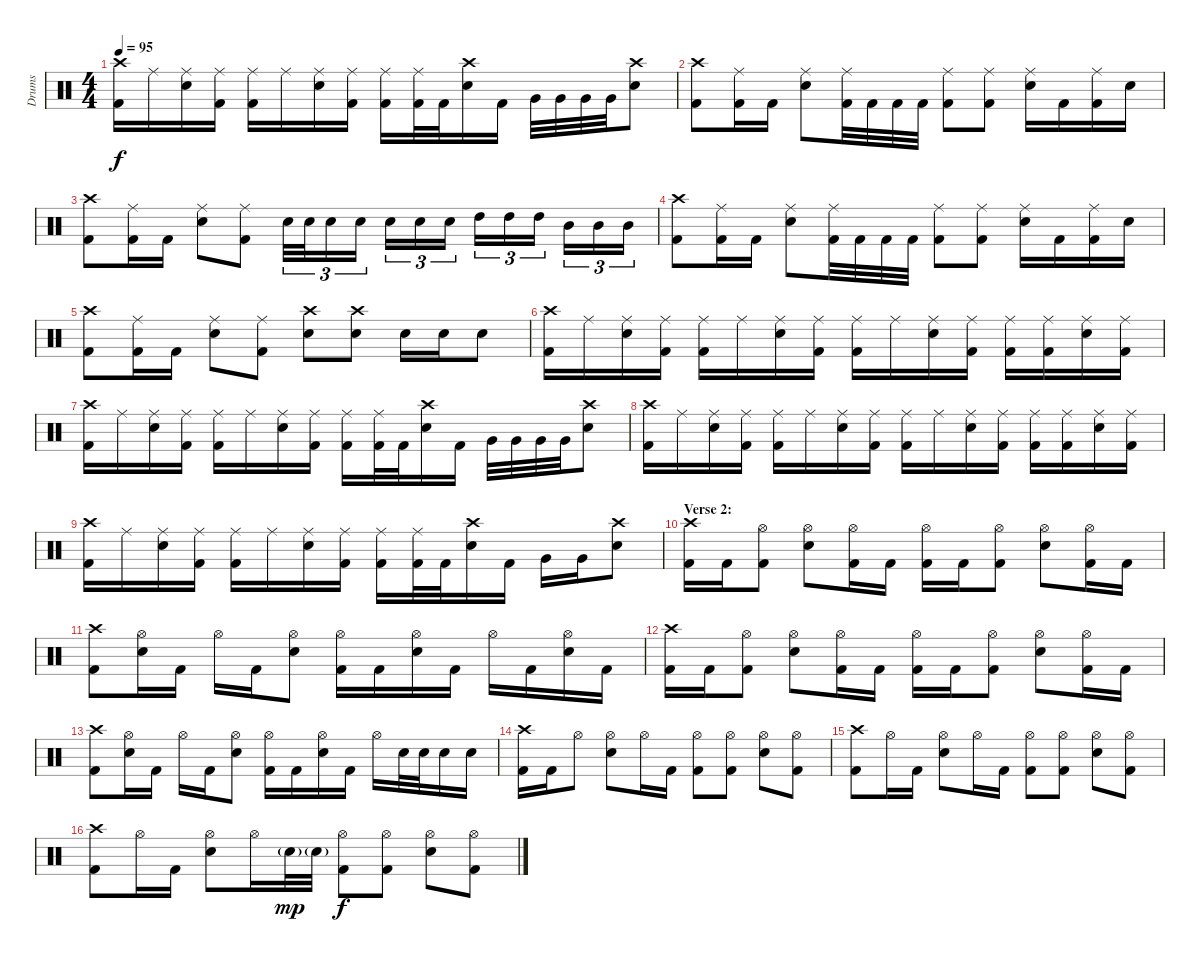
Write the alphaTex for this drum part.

\track ("Drums" "Drums") {instrument percussion}
\staff {score}
\articulation defaults
\ts (4 4)
\tempo 95
\clef neutral
\ks c
("Crash high (hit)" "Kick (hit) 2").16{dy f} "Ride (middle)".16 ("Ride (middle)" "Electric Snare (hit)").16 ("Ride (middle)" "Kick (hit) 2").16 ("Ride (middle)" "Kick (hit) 2").16 "Ride (middle)".16 ("Ride (middle)" "Electric Snare (hit)").16 ("Ride (middle)" "Kick (hit) 2").16 ("Ride (middle)" "Kick (hit) 2").16 ("Ride (middle)" "Kick (hit) 2").32 "Kick (hit) 2".32 ("Crash high (hit)" "Electric Snare (hit)").16 "Kick (hit) 2".16 "Very Low Tom (hit)".32 "Very Low Tom (hit)".32 "Very Low Tom (hit)".32 "Very Low Tom (hit)".32 ("Crash high (hit)" "Electric Snare (hit)").8 |
("Crash high (hit)" "Kick (hit) 2").8 ("Ride (middle)" "Kick (hit) 2").16 "Kick (hit) 2".16 ("Ride (middle)" "Electric Snare (hit)").8 ("Ride (middle)" "Kick (hit) 2").32 "Kick (hit) 2".32 "Kick (hit) 2".32 "Kick (hit) 2".32 ("Ride (middle)" "Kick (hit) 2").8 ("Ride (middle)" "Kick (hit) 2").8 ("Ride (middle)" "Electric Snare (hit)").16 "Kick (hit) 2".16 ("Ride (middle)" "Kick (hit) 2").16 "Electric Snare (hit)".16 |
("Crash high (hit)" "Kick (hit) 2").8 ("Ride (middle)" "Kick (hit) 2").16 "Kick (hit) 2".16 ("Ride (middle)" "Electric Snare (hit)").8 ("Ride (middle)" "Kick (hit) 2").8 "Electric Snare (hit)".32{tu (3 2)} "Electric Snare (hit)".32{tu (3 2)} "Electric Snare (hit)".16{tu (3 2)} "Electric Snare (hit)".16{tu (3 2)} "Electric Snare (hit)".16{tu (3 2)} "Electric Snare (hit)".16{tu (3 2)} "Electric Snare (hit)".16{tu (3 2)} "High Tom (hit)".16{tu (3 2)} "High Tom (hit)".16{tu (3 2)} "High Tom (hit)".16{tu (3 2)} "Mid Tom (hit)".16{tu (3 2)} "Mid Tom (hit)".16{tu (3 2)} "Mid Tom (hit)".16{tu (3 2)} |
("Crash high (hit)" "Kick (hit) 2").8 ("Ride (middle)" "Kick (hit) 2").16 "Kick (hit) 2".16 ("Ride (middle)" "Electric Snare (hit)").8 ("Ride (middle)" "Kick (hit) 2").32 "Kick (hit) 2".32 "Kick (hit) 2".32 "Kick (hit) 2".32 ("Ride (middle)" "Kick (hit) 2").8 ("Ride (middle)" "Kick (hit) 2").8 ("Ride (middle)" "Electric Snare (hit)").16 "Kick (hit) 2".16 ("Ride (middle)" "Kick (hit) 2").16 "Electric Snare (hit)".16 |
("Crash high (hit)" "Kick (hit) 2").8 ("Ride (middle)" "Kick (hit) 2").16 "Kick (hit) 2".16 ("Ride (middle)" "Electric Snare (hit)").8 ("Ride (middle)" "Kick (hit) 2").8 ("Crash high (hit)" "Electric Snare (hit)").8 ("Crash high (hit)" "Electric Snare (hit)").8 "Electric Snare (hit)".16 "Electric Snare (hit)".16 "Electric Snare (hit)".8 |
("Crash high (hit)" "Kick (hit) 2").16 "Ride (middle)".16 ("Ride (middle)" "Electric Snare (hit)").16 ("Ride (middle)" "Kick (hit) 2").16 ("Ride (middle)" "Kick (hit) 2").16 "Ride (middle)".16 ("Ride (middle)" "Electric Snare (hit)").16 ("Ride (middle)" "Kick (hit) 2").16 ("Ride (middle)" "Kick (hit) 2").16 "Ride (middle)".16 ("Ride (middle)" "Electric Snare (hit)").16 ("Ride (middle)" "Kick (hit) 2").16 ("Ride (middle)" "Kick (hit) 2").16 ("Ride (middle)" "Kick (hit) 2").16 ("Ride (middle)" "Electric Snare (hit)").16 ("Ride (middle)" "Kick (hit) 2").16 |
("Crash high (hit)" "Kick (hit) 2").16 "Ride (middle)".16 ("Ride (middle)" "Electric Snare (hit)").16 ("Ride (middle)" "Kick (hit) 2").16 ("Ride (middle)" "Kick (hit) 2").16 "Ride (middle)".16 ("Ride (middle)" "Electric Snare (hit)").16 ("Ride (middle)" "Kick (hit) 2").16 ("Ride (middle)" "Kick (hit) 2").16 ("Ride (middle)" "Kick (hit) 2").32 "Kick (hit) 2".32 ("Crash high (hit)" "Electric Snare (hit)").16 "Kick (hit) 2".16 "Very Low Tom (hit)".32 "Very Low Tom (hit)".32 "Very Low Tom (hit)".32 "Very Low Tom (hit)".32 ("Crash high (hit)" "Electric Snare (hit)").8 |
("Crash high (hit)" "Kick (hit) 2").16 "Ride (middle)".16 ("Ride (middle)" "Electric Snare (hit)").16 ("Ride (middle)" "Kick (hit) 2").16 ("Ride (middle)" "Kick (hit) 2").16 "Ride (middle)".16 ("Ride (middle)" "Electric Snare (hit)").16 ("Ride (middle)" "Kick (hit) 2").16 ("Ride (middle)" "Kick (hit) 2").16 "Ride (middle)".16 ("Ride (middle)" "Electric Snare (hit)").16 ("Ride (middle)" "Kick (hit) 2").16 ("Ride (middle)" "Kick (hit) 2").16 ("Ride (middle)" "Kick (hit) 2").16 ("Ride (middle)" "Electric Snare (hit)").16 ("Ride (middle)" "Kick (hit) 2").16 |
("Crash high (hit)" "Kick (hit) 2").16 "Ride (middle)".16 ("Ride (middle)" "Electric Snare (hit)").16 ("Ride (middle)" "Kick (hit) 2").16 ("Ride (middle)" "Kick (hit) 2").16 "Ride (middle)".16 ("Ride (middle)" "Electric Snare (hit)").16 ("Ride (middle)" "Kick (hit) 2").16 ("Ride (middle)" "Kick (hit) 2").16 ("Ride (middle)" "Kick (hit) 2").32 "Kick (hit) 2".32 ("Crash high (hit)" "Electric Snare (hit)").16 "Kick (hit) 2".16 "Very Low Tom (hit)".16 "Very Low Tom (hit)".16 ("Crash high (hit)" "Electric Snare (hit)").8 |
\section ("" "Verse 2:")
("Crash high (hit)" "Kick (hit) 2").16 "Kick (hit) 2".16 ("Hi-Hat (open)" "Kick (hit) 2").8 ("Hi-Hat (open)" "Electric Snare (hit)").8 ("Hi-Hat (open)" "Kick (hit) 2").16 "Kick (hit) 2".16 ("Hi-Hat (open)" "Kick (hit) 2").16 "Kick (hit) 2".16 ("Hi-Hat (open)" "Kick (hit) 2").8 ("Hi-Hat (open)" "Electric Snare (hit)").8 ("Hi-Hat (open)" "Kick (hit) 2").16 "Kick (hit) 2".16 |
("Crash high (hit)" "Kick (hit) 2").8 ("Hi-Hat (open)" "Electric Snare (hit)").16 "Kick (hit) 2".16 "Hi-Hat (open)".16 "Kick (hit) 2".16 ("Hi-Hat (open)" "Electric Snare (hit)").8 ("Hi-Hat (open)" "Kick (hit) 2").16 "Kick (hit) 2".16 ("Hi-Hat (open)" "Electric Snare (hit)").16 "Kick (hit) 2".16 "Hi-Hat (open)".16 "Kick (hit) 2".16 ("Hi-Hat (open)" "Electric Snare (hit)").16 "Kick (hit) 2".16 |
("Crash high (hit)" "Kick (hit) 2").16 "Kick (hit) 2".16 ("Hi-Hat (open)" "Kick (hit) 2").8 ("Hi-Hat (open)" "Electric Snare (hit)").8 ("Hi-Hat (open)" "Kick (hit) 2").16 "Kick (hit) 2".16 ("Hi-Hat (open)" "Kick (hit) 2").16 "Kick (hit) 2".16 ("Hi-Hat (open)" "Kick (hit) 2").8 ("Hi-Hat (open)" "Electric Snare (hit)").8 ("Hi-Hat (open)" "Kick (hit) 2").16 "Kick (hit) 2".16 |
("Crash high (hit)" "Kick (hit) 2").8 ("Hi-Hat (open)" "Electric Snare (hit)").16 "Kick (hit) 2".16 "Hi-Hat (open)".16 "Kick (hit) 2".16 ("Hi-Hat (open)" "Electric Snare (hit)").8 ("Hi-Hat (open)" "Kick (hit) 2").16 "Kick (hit) 2".16 ("Hi-Hat (open)" "Electric Snare (hit)").16 "Kick (hit) 2".16 "Hi-Hat (open)".16 "Electric Snare (hit)".32 "Electric Snare (hit)".32 "Electric Snare (hit)".16 "Electric Snare (hit)".16 |
("Crash high (hit)" "Kick (hit) 2").16 "Kick (hit) 2".16 "Hi-Hat (open)".8 ("Hi-Hat (open)" "Electric Snare (hit)").8 "Hi-Hat (open)".16 "Kick (hit) 2".16 ("Hi-Hat (open)" "Kick (hit) 2").8 ("Hi-Hat (open)" "Kick (hit) 2").8 ("Hi-Hat (open)" "Electric Snare (hit)").8 ("Hi-Hat (open)" "Kick (hit) 2").8 |
("Crash high (hit)" "Kick (hit) 2").8 "Hi-Hat (open)".16 "Kick (hit) 2".16 ("Hi-Hat (open)" "Electric Snare (hit)").8 "Hi-Hat (open)".16 "Kick (hit) 2".16 ("Hi-Hat (open)" "Kick (hit) 2").8 ("Hi-Hat (open)" "Kick (hit) 2").8 ("Hi-Hat (open)" "Electric Snare (hit)").8 ("Hi-Hat (open)" "Kick (hit) 2").8 |
("Crash high (hit)" "Kick (hit) 2").8 "Hi-Hat (open)".16 "Kick (hit) 2".16 ("Hi-Hat (open)" "Electric Snare (hit)").8 "Hi-Hat (open)".16 "Electric Snare (hit)"{g}.32{dy mp} "Electric Snare (hit)"{g}.32 ("Hi-Hat (open)" "Kick (hit) 2").8{dy f} ("Hi-Hat (open)" "Kick (hit) 2").8 ("Hi-Hat (open)" "Electric Snare (hit)").8 ("Hi-Hat (open)" "Kick (hit) 2").8
